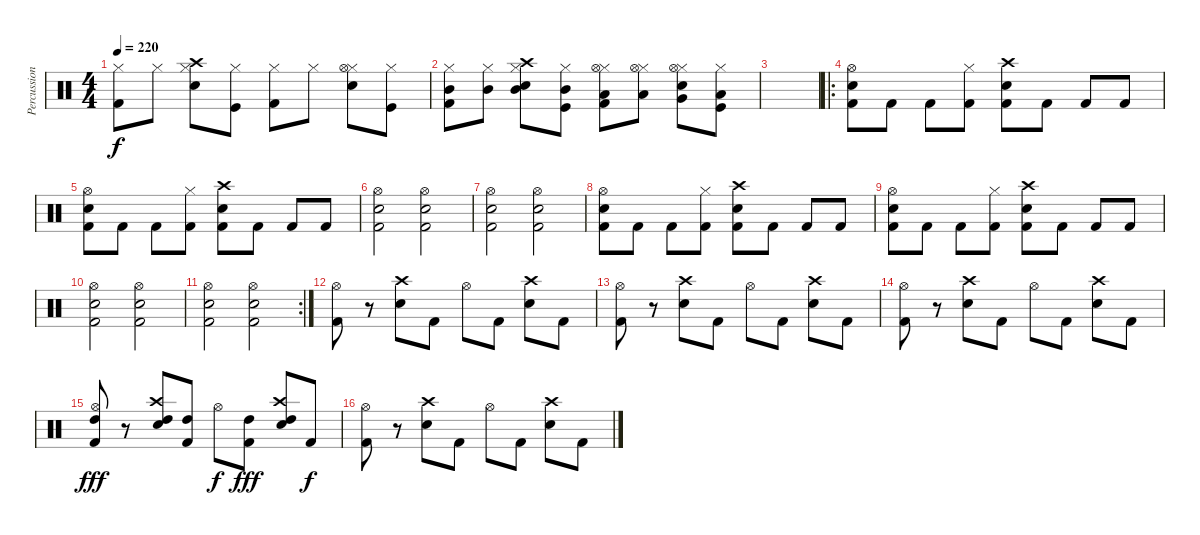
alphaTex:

\track ("Percussion" "Percussion") {instrument percussion}
\staff {score}
\articulation defaults
\ts (4 4)
\tempo 220
\clef neutral
\ks c
("Kick (hit) 2" "Hi-Hat (closed)").8{dy f} "Hi-Hat (closed)".8 ("Snare (hit) 2" "Hi-Hat (closed)" "Crash high (hit)").8 ("Kick (hit)" "Hi-Hat (closed)").8 ("Kick (hit) 2" "Hi-Hat (closed)").8 "Hi-Hat (closed)".8 ("Snare (hit) 2" "Hi-Hat (closed)" "Hi-Hat (open)").8 ("Kick (hit)" "Hi-Hat (closed)").8 |
("Kick (hit) 2" "Mid Tom (hit)" "Hi-Hat (closed)").8 ("Mid Tom (hit)" "Hi-Hat (closed)").8 ("Snare (hit) 2" "Mid Tom (hit)" "Hi-Hat (closed)" "Crash high (hit)").8 ("Kick (hit)" "Mid Tom (hit)" "Hi-Hat (closed)").8 ("Kick (hit) 2" "Low Tom (hit)" "Hi-Hat (closed)" "Hi-Hat (open)").8 ("Low Tom (hit)" "Hi-Hat (closed)" "Hi-Hat (open)").8 ("Snare (hit) 2" "Very Low Tom (hit)" "Hi-Hat (closed)" "Hi-Hat (open)").8 ("Kick (hit)" "Low Tom (hit)" "Hi-Hat (closed)").8 |
|
\ro
("Snare (hit) 2" "Hi-Hat (open)" "Kick (hit) 2").8 "Kick (hit) 2".8 "Kick (hit) 2".8 ("Hi-Hat (closed)" "Kick (hit) 2").8 ("Snare (hit) 2" "Crash high (hit)" "Kick (hit) 2").8 "Kick (hit) 2".8 "Kick (hit) 2".8 "Kick (hit) 2".8 |
("Snare (hit) 2" "Hi-Hat (open)" "Kick (hit) 2").8 "Kick (hit) 2".8 "Kick (hit) 2".8 ("Hi-Hat (closed)" "Kick (hit) 2").8 ("Snare (hit) 2" "Crash high (hit)" "Kick (hit) 2").8 "Kick (hit) 2".8 "Kick (hit) 2".8 "Kick (hit) 2".8 |
("Snare (hit) 2" "Hi-Hat (open)" "Kick (hit) 2").2 ("Snare (hit) 2" "Hi-Hat (open)" "Kick (hit) 2").2 |
("Snare (hit) 2" "Hi-Hat (open)" "Kick (hit) 2").2 ("Snare (hit) 2" "Hi-Hat (open)" "Kick (hit) 2").2 |
("Snare (hit) 2" "Hi-Hat (open)" "Kick (hit) 2").8 "Kick (hit) 2".8 "Kick (hit) 2".8 ("Hi-Hat (closed)" "Kick (hit) 2").8 ("Snare (hit) 2" "Crash high (hit)" "Kick (hit) 2").8 "Kick (hit) 2".8 "Kick (hit) 2".8 "Kick (hit) 2".8 |
("Snare (hit) 2" "Hi-Hat (open)" "Kick (hit) 2").8 "Kick (hit) 2".8 "Kick (hit) 2".8 ("Hi-Hat (closed)" "Kick (hit) 2").8 ("Snare (hit) 2" "Crash high (hit)" "Kick (hit) 2").8 "Kick (hit) 2".8 "Kick (hit) 2".8 "Kick (hit) 2".8 |
("Snare (hit) 2" "Hi-Hat (open)" "Kick (hit) 2").2 ("Snare (hit) 2" "Hi-Hat (open)" "Kick (hit) 2").2 |
\rc 2
("Snare (hit) 2" "Hi-Hat (open)" "Kick (hit) 2").2 ("Snare (hit) 2" "Hi-Hat (open)" "Kick (hit) 2").2 |
("Kick (hit) 2" "Hi-Hat (open)").8 r.8 ("Snare (hit) 2" "Crash high (hit)").8 "Kick (hit) 2".8 "Hi-Hat (open)".8 "Kick (hit) 2".8 ("Snare (hit) 2" "Crash high (hit)").8 "Kick (hit) 2".8 |
("Kick (hit) 2" "Hi-Hat (open)").8 r.8 ("Snare (hit) 2" "Crash high (hit)").8 "Kick (hit) 2".8 "Hi-Hat (open)".8 "Kick (hit) 2".8 ("Snare (hit) 2" "Crash high (hit)").8 "Kick (hit) 2".8 |
("Kick (hit) 2" "Hi-Hat (open)").8 r.8 ("Snare (hit) 2" "Crash high (hit)").8 "Kick (hit) 2".8 "Hi-Hat (open)".8 "Kick (hit) 2".8 ("Snare (hit) 2" "Crash high (hit)").8 "Kick (hit) 2".8 |
("Kick (hit) 2" "High Tom (hit)" "Hi-Hat (open)").8{dy fff} r.8 ("Snare (hit) 2" "High Tom (hit)" "Crash high (hit)").8 ("Kick (hit) 2" "High Tom (hit)").8 "Hi-Hat (open)".8{dy f} ("Kick (hit) 2" "High Tom (hit)").8{dy fff} ("Snare (hit) 2" "High Tom (hit)" "Crash high (hit)").8 "Kick (hit) 2".8{dy f} |
("Kick (hit) 2" "Hi-Hat (open)").8 r.8 ("Snare (hit) 2" "Crash high (hit)").8 "Kick (hit) 2".8 "Hi-Hat (open)".8 "Kick (hit) 2".8 ("Snare (hit) 2" "Crash high (hit)").8 "Kick (hit) 2".8
